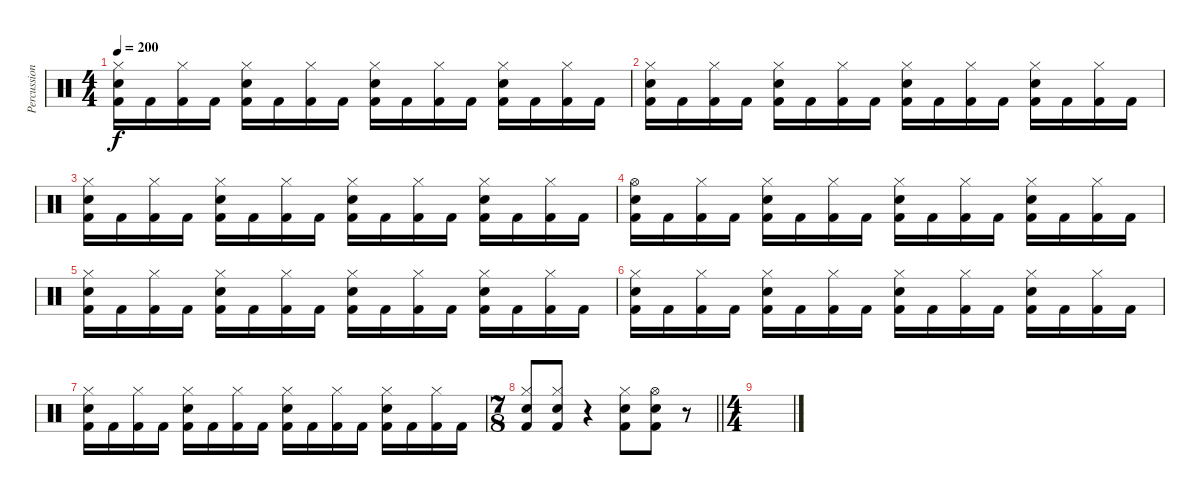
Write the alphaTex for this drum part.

\track ("Percussions" "Percussion") {instrument percussion}
\staff {score}
\articulation defaults
\ts (4 4)
\tempo 200
\clef neutral
\ks c
("Electric Snare (hit)" "Hi-Hat (closed)" "Kick (hit) 2").16{dy f} "Kick (hit) 2".16 ("Hi-Hat (closed)" "Kick (hit) 2").16 "Kick (hit) 2".16 ("Electric Snare (hit)" "Hi-Hat (closed)" "Kick (hit) 2").16 "Kick (hit) 2".16 ("Hi-Hat (closed)" "Kick (hit) 2").16 "Kick (hit) 2".16 ("Electric Snare (hit)" "Hi-Hat (closed)" "Kick (hit) 2").16 "Kick (hit) 2".16 ("Hi-Hat (closed)" "Kick (hit) 2").16 "Kick (hit) 2".16 ("Electric Snare (hit)" "Hi-Hat (closed)" "Kick (hit) 2").16 "Kick (hit) 2".16 ("Hi-Hat (closed)" "Kick (hit) 2").16 "Kick (hit) 2".16 |
("Electric Snare (hit)" "Hi-Hat (closed)" "Kick (hit) 2").16 "Kick (hit) 2".16 ("Hi-Hat (closed)" "Kick (hit) 2").16 "Kick (hit) 2".16 ("Electric Snare (hit)" "Hi-Hat (closed)" "Kick (hit) 2").16 "Kick (hit) 2".16 ("Hi-Hat (closed)" "Kick (hit) 2").16 "Kick (hit) 2".16 ("Electric Snare (hit)" "Hi-Hat (closed)" "Kick (hit) 2").16 "Kick (hit) 2".16 ("Hi-Hat (closed)" "Kick (hit) 2").16 "Kick (hit) 2".16 ("Electric Snare (hit)" "Hi-Hat (closed)" "Kick (hit) 2").16 "Kick (hit) 2".16 ("Hi-Hat (closed)" "Kick (hit) 2").16 "Kick (hit) 2".16 |
("Electric Snare (hit)" "Hi-Hat (closed)" "Kick (hit) 2").16 "Kick (hit) 2".16 ("Hi-Hat (closed)" "Kick (hit) 2").16 "Kick (hit) 2".16 ("Electric Snare (hit)" "Hi-Hat (closed)" "Kick (hit) 2").16 "Kick (hit) 2".16 ("Hi-Hat (closed)" "Kick (hit) 2").16 "Kick (hit) 2".16 ("Electric Snare (hit)" "Hi-Hat (closed)" "Kick (hit) 2").16 "Kick (hit) 2".16 ("Hi-Hat (closed)" "Kick (hit) 2").16 "Kick (hit) 2".16 ("Electric Snare (hit)" "Hi-Hat (closed)" "Kick (hit) 2").16 "Kick (hit) 2".16 ("Hi-Hat (closed)" "Kick (hit) 2").16 "Kick (hit) 2".16 |
("Hi-Hat (open)" "Electric Snare (hit)" "Kick (hit) 2").16 "Kick (hit) 2".16 ("Hi-Hat (closed)" "Kick (hit) 2").16 "Kick (hit) 2".16 ("Electric Snare (hit)" "Hi-Hat (closed)" "Kick (hit) 2").16 "Kick (hit) 2".16 ("Hi-Hat (closed)" "Kick (hit) 2").16 "Kick (hit) 2".16 ("Electric Snare (hit)" "Hi-Hat (closed)" "Kick (hit) 2").16 "Kick (hit) 2".16 ("Hi-Hat (closed)" "Kick (hit) 2").16 "Kick (hit) 2".16 ("Electric Snare (hit)" "Hi-Hat (closed)" "Kick (hit) 2").16 "Kick (hit) 2".16 ("Hi-Hat (closed)" "Kick (hit) 2").16 "Kick (hit) 2".16 |
("Electric Snare (hit)" "Hi-Hat (closed)" "Kick (hit) 2").16 "Kick (hit) 2".16 ("Hi-Hat (closed)" "Kick (hit) 2").16 "Kick (hit) 2".16 ("Electric Snare (hit)" "Hi-Hat (closed)" "Kick (hit) 2").16 "Kick (hit) 2".16 ("Hi-Hat (closed)" "Kick (hit) 2").16 "Kick (hit) 2".16 ("Electric Snare (hit)" "Hi-Hat (closed)" "Kick (hit) 2").16 "Kick (hit) 2".16 ("Hi-Hat (closed)" "Kick (hit) 2").16 "Kick (hit) 2".16 ("Electric Snare (hit)" "Hi-Hat (closed)" "Kick (hit) 2").16 "Kick (hit) 2".16 ("Hi-Hat (closed)" "Kick (hit) 2").16 "Kick (hit) 2".16 |
("Electric Snare (hit)" "Hi-Hat (closed)" "Kick (hit) 2").16 "Kick (hit) 2".16 ("Hi-Hat (closed)" "Kick (hit) 2").16 "Kick (hit) 2".16 ("Electric Snare (hit)" "Hi-Hat (closed)" "Kick (hit) 2").16 "Kick (hit) 2".16 ("Hi-Hat (closed)" "Kick (hit) 2").16 "Kick (hit) 2".16 ("Electric Snare (hit)" "Hi-Hat (closed)" "Kick (hit) 2").16 "Kick (hit) 2".16 ("Hi-Hat (closed)" "Kick (hit) 2").16 "Kick (hit) 2".16 ("Electric Snare (hit)" "Hi-Hat (closed)" "Kick (hit) 2").16 "Kick (hit) 2".16 ("Hi-Hat (closed)" "Kick (hit) 2").16 "Kick (hit) 2".16 |
("Electric Snare (hit)" "Hi-Hat (closed)" "Kick (hit) 2").16 "Kick (hit) 2".16 ("Hi-Hat (closed)" "Kick (hit) 2").16 "Kick (hit) 2".16 ("Electric Snare (hit)" "Hi-Hat (closed)" "Kick (hit) 2").16 "Kick (hit) 2".16 ("Hi-Hat (closed)" "Kick (hit) 2").16 "Kick (hit) 2".16 ("Electric Snare (hit)" "Hi-Hat (closed)" "Kick (hit) 2").16 "Kick (hit) 2".16 ("Hi-Hat (closed)" "Kick (hit) 2").16 "Kick (hit) 2".16 ("Electric Snare (hit)" "Hi-Hat (closed)" "Kick (hit) 2").16 "Kick (hit) 2".16 ("Hi-Hat (closed)" "Kick (hit) 2").16 "Kick (hit) 2".16 |
\ts (7 8)
\barLineRight lightlight
("Hi-Hat (closed)" "Electric Snare (hit)" "Kick (hit) 2").8 ("Hi-Hat (closed)" "Electric Snare (hit)" "Kick (hit) 2").8 r.4 ("Hi-Hat (closed)" "Electric Snare (hit)" "Kick (hit) 2").8 ("Hi-Hat (open)" "Electric Snare (hit)" "Kick (hit) 2").8 r.8 |
\ts (4 4)
\section ("" "")
